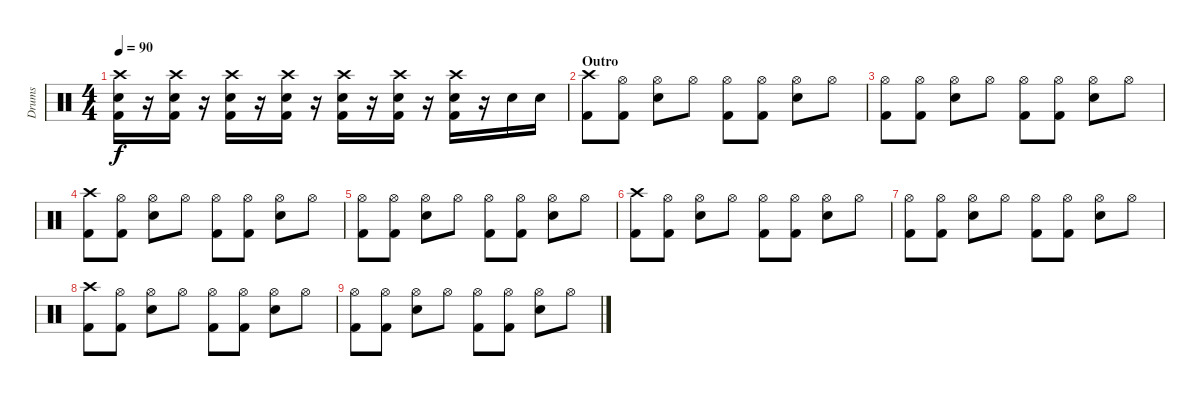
\track ("Drums" "Drums") {instrument percussion}
\staff {score}
\articulation defaults
\ts (4 4)
\tempo 90
\clef neutral
\ks c
("Crash high (hit)" "Electric Snare (hit)" "Kick (hit) 2").16{dy f} r.16 ("Crash high (hit)" "Electric Snare (hit)" "Kick (hit) 2").16 r.16 ("Crash high (hit)" "Electric Snare (hit)" "Kick (hit) 2").16 r.16 ("Crash high (hit)" "Electric Snare (hit)" "Kick (hit) 2").16 r.16 ("Crash high (hit)" "Electric Snare (hit)" "Kick (hit) 2").16 r.16 ("Crash high (hit)" "Electric Snare (hit)" "Kick (hit) 2").16 r.16 ("Crash high (hit)" "Electric Snare (hit)" "Kick (hit) 2").16 r.16 "Electric Snare (hit)".16 "Electric Snare (hit)".16 |
\section ("" "Outro")
("Crash high (hit)" "Kick (hit) 2").8 ("Hi-Hat (open)" "Kick (hit) 2").8 ("Hi-Hat (open)" "Electric Snare (hit)").8 "Hi-Hat (open)".8 ("Hi-Hat (open)" "Kick (hit) 2").8 ("Hi-Hat (open)" "Kick (hit) 2").8 ("Hi-Hat (open)" "Electric Snare (hit)").8 "Hi-Hat (open)".8 |
("Hi-Hat (open)" "Kick (hit) 2").8 ("Hi-Hat (open)" "Kick (hit) 2").8 ("Hi-Hat (open)" "Electric Snare (hit)").8 "Hi-Hat (open)".8 ("Hi-Hat (open)" "Kick (hit) 2").8 ("Hi-Hat (open)" "Kick (hit) 2").8 ("Hi-Hat (open)" "Electric Snare (hit)").8 "Hi-Hat (open)".8 |
("Crash high (hit)" "Kick (hit) 2").8 ("Hi-Hat (open)" "Kick (hit) 2").8 ("Hi-Hat (open)" "Electric Snare (hit)").8 "Hi-Hat (open)".8 ("Hi-Hat (open)" "Kick (hit) 2").8 ("Hi-Hat (open)" "Kick (hit) 2").8 ("Hi-Hat (open)" "Electric Snare (hit)").8 "Hi-Hat (open)".8 |
("Hi-Hat (open)" "Kick (hit) 2").8 ("Hi-Hat (open)" "Kick (hit) 2").8 ("Hi-Hat (open)" "Electric Snare (hit)").8 "Hi-Hat (open)".8 ("Hi-Hat (open)" "Kick (hit) 2").8 ("Hi-Hat (open)" "Kick (hit) 2").8 ("Hi-Hat (open)" "Electric Snare (hit)").8 "Hi-Hat (open)".8 |
("Crash high (hit)" "Kick (hit) 2").8 ("Hi-Hat (open)" "Kick (hit) 2").8 ("Hi-Hat (open)" "Electric Snare (hit)").8 "Hi-Hat (open)".8 ("Hi-Hat (open)" "Kick (hit) 2").8 ("Hi-Hat (open)" "Kick (hit) 2").8 ("Hi-Hat (open)" "Electric Snare (hit)").8 "Hi-Hat (open)".8 |
("Hi-Hat (open)" "Kick (hit) 2").8 ("Hi-Hat (open)" "Kick (hit) 2").8 ("Hi-Hat (open)" "Electric Snare (hit)").8 "Hi-Hat (open)".8 ("Hi-Hat (open)" "Kick (hit) 2").8 ("Hi-Hat (open)" "Kick (hit) 2").8 ("Hi-Hat (open)" "Electric Snare (hit)").8 "Hi-Hat (open)".8 |
("Crash high (hit)" "Kick (hit) 2").8 ("Hi-Hat (open)" "Kick (hit) 2").8 ("Hi-Hat (open)" "Electric Snare (hit)").8 "Hi-Hat (open)".8 ("Hi-Hat (open)" "Kick (hit) 2").8 ("Hi-Hat (open)" "Kick (hit) 2").8 ("Hi-Hat (open)" "Electric Snare (hit)").8 "Hi-Hat (open)".8 |
("Hi-Hat (open)" "Kick (hit) 2").8 ("Hi-Hat (open)" "Kick (hit) 2").8 ("Hi-Hat (open)" "Electric Snare (hit)").8 "Hi-Hat (open)".8 ("Hi-Hat (open)" "Kick (hit) 2").8 ("Hi-Hat (open)" "Kick (hit) 2").8 ("Hi-Hat (open)" "Electric Snare (hit)").8 "Hi-Hat (open)".8
